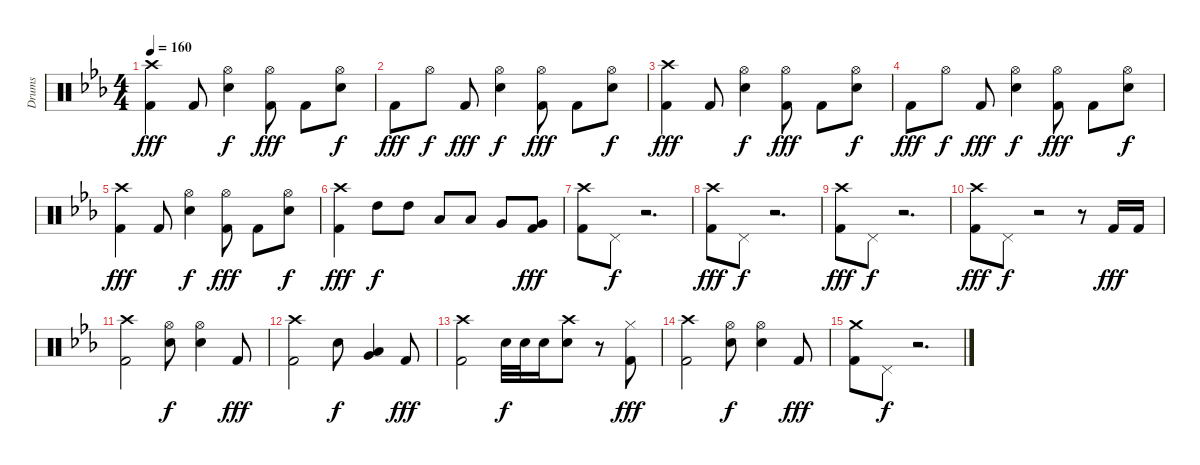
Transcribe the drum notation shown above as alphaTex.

\track ("Drums" "Drums") {instrument percussion}
\staff {score}
\articulation defaults
\ts (4 4)
\tempo 160
\clef neutral
\ks eb
("Crash high (hit)" "Kick (hit) 2").4{dy fff} "Kick (hit) 2".8 ("Hi-Hat (open)" "Electric Snare (hit)").4{dy f} ("Hi-Hat (open)" "Kick (hit) 2").8{dy fff} "Kick (hit) 2".8 ("Hi-Hat (open)" "Electric Snare (hit)").8{dy f} |
"Kick (hit) 2".8{dy fff} "Hi-Hat (open)".8{dy f} "Kick (hit) 2".8{dy fff} ("Hi-Hat (open)" "Electric Snare (hit)").4{dy f} ("Hi-Hat (open)" "Kick (hit) 2").8{dy fff} "Kick (hit) 2".8 ("Hi-Hat (open)" "Electric Snare (hit)").8{dy f} |
("Crash high (hit)" "Kick (hit) 2").4{dy fff} "Kick (hit) 2".8 ("Hi-Hat (open)" "Electric Snare (hit)").4{dy f} ("Hi-Hat (open)" "Kick (hit) 2").8{dy fff} "Kick (hit) 2".8 ("Hi-Hat (open)" "Electric Snare (hit)").8{dy f} |
"Kick (hit) 2".8{dy fff} "Hi-Hat (open)".8{dy f} "Kick (hit) 2".8{dy fff} ("Hi-Hat (open)" "Electric Snare (hit)").4{dy f} ("Hi-Hat (open)" "Kick (hit) 2").8{dy fff} "Kick (hit) 2".8 ("Hi-Hat (open)" "Electric Snare (hit)").8{dy f} |
("Crash high (hit)" "Kick (hit) 2").4{dy fff} "Kick (hit) 2".8 ("Hi-Hat (open)" "Electric Snare (hit)").4{dy f} ("Hi-Hat (open)" "Kick (hit) 2").8{dy fff} "Kick (hit) 2".8 ("Hi-Hat (open)" "Electric Snare (hit)").8{dy f} |
("Crash high (hit)" "Kick (hit) 2").4{dy fff} "High Tom (hit)".8{dy f} "High Tom (hit)".8 "Low Tom (hit)".8 "Low Tom (hit)".8 "Very Low Tom (hit)".8 ("Very Low Tom (hit)" "Kick (hit) 2").8{dy fff} |
\section ("" "")
("Crash high (hit)" "Kick (hit) 2").8 "Pedal Hi-Hat (hit)".8{dy f volume 0} r.2{d} |
("Crash high (hit)" "Kick (hit) 2").8{dy fff volume 13} "Pedal Hi-Hat (hit)".8{dy f volume 0} r.2{d} |
("Crash high (hit)" "Kick (hit) 2").8{dy fff volume 13} "Pedal Hi-Hat (hit)".8{dy f volume 0} r.2{d} |
("Crash high (hit)" "Kick (hit) 2").8{dy fff volume 13} "Pedal Hi-Hat (hit)".8{dy f volume 0} r.2 r.8 "Kick (hit) 2".16{dy fff volume 13} "Kick (hit) 2".16 |
("Crash high (hit)" "Kick (hit) 2").2 ("Hi-Hat (open)" "Electric Snare (hit)").8{dy f} ("Hi-Hat (open)" "Electric Snare (hit)").4 "Kick (hit) 2".8{dy fff} |
("Crash high (hit)" "Kick (hit) 2").2 "Electric Snare (hit)".8{dy f} ("Low Tom (hit)" "Very Low Tom (hit)").4 "Kick (hit) 2".8{dy fff} |
("Crash high (hit)" "Kick (hit) 2").2 "Electric Snare (hit)".32{dy f} "Electric Snare (hit)".32 "Electric Snare (hit)".16 ("Crash high (hit)" "Electric Snare (hit)").8 r.8 ("Hi-Hat (closed)" "Kick (hit) 2").8{dy fff} |
("Crash high (hit)" "Kick (hit) 2").2 ("Hi-Hat (open)" "Electric Snare (hit)").8{dy f} ("Hi-Hat (open)" "Electric Snare (hit)").4 "Kick (hit) 2".8{dy fff} |
("Crash medium (hit)" "Kick (hit) 2").8 "Pedal Hi-Hat (hit)".8{dy f volume 0} r.2{d}
